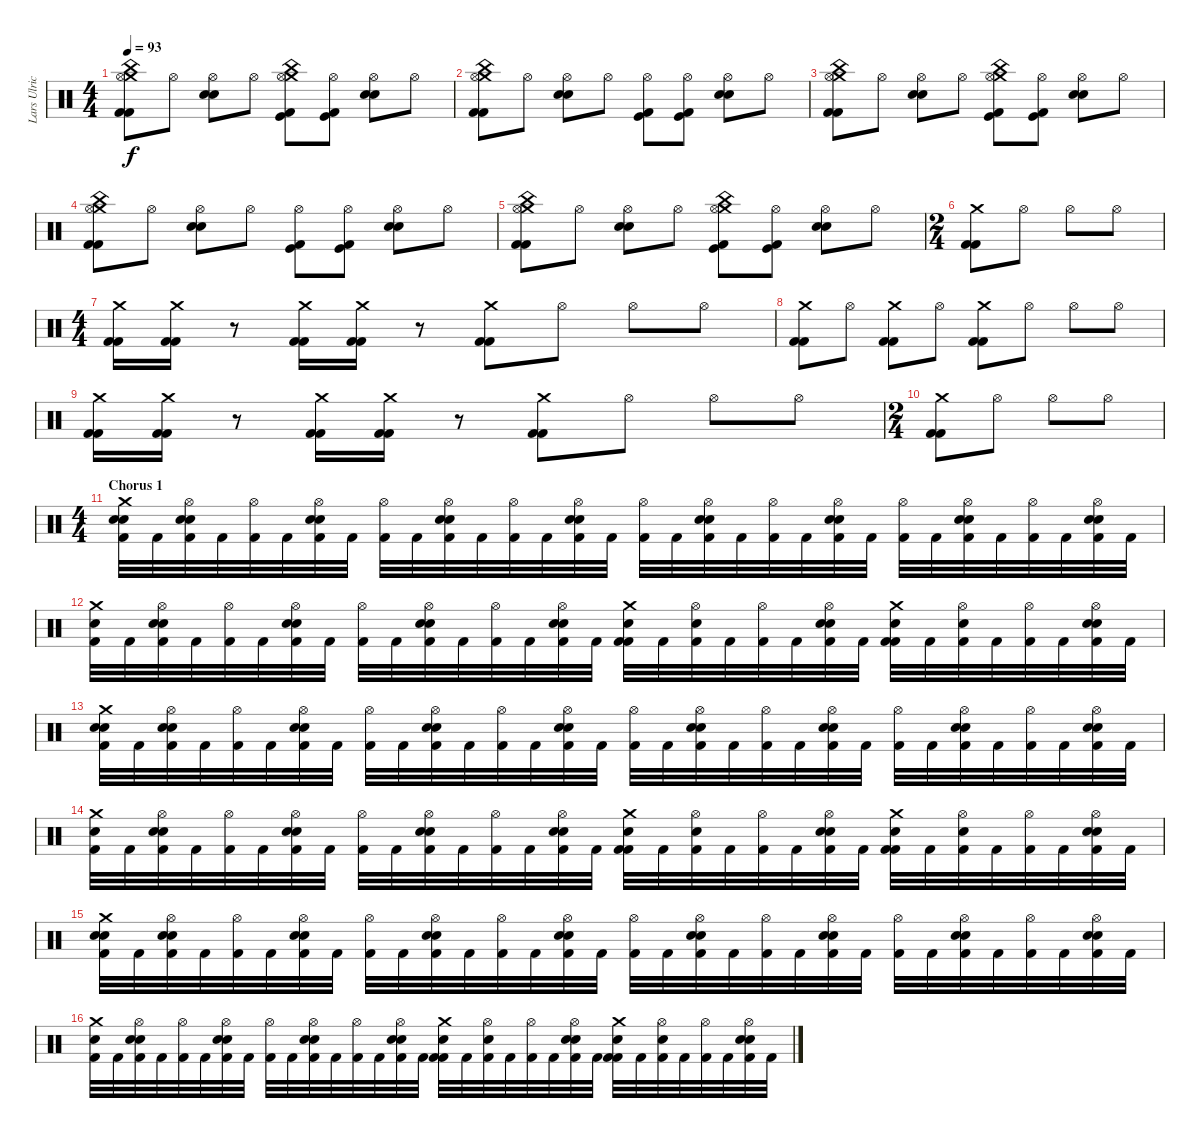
\track ("Lars Ulrich" "Lars Ulric") {instrument percussion}
\staff {score}
\articulation defaults
\ts (4 4)
\tempo 93
\clef neutral
\ks c
("Crash medium (hit)" "Hi-Hat (open)" "China (hit)" "Kick (hit) 2" "Kick (hit) 2").8{dy f} "Hi-Hat (open)".8 ("Hi-Hat (open)" "Electric Snare (hit)" "Snare (hit) 2").8 "Hi-Hat (open)".8 ("Crash medium (hit)" "Hi-Hat (open)" "China (hit)" "Kick (hit) 2" "Kick (hit)").8 ("Hi-Hat (open)" "Kick (hit) 2" "Kick (hit)").8 ("Hi-Hat (open)" "Electric Snare (hit)" "Snare (hit) 2").8 "Hi-Hat (open)".8 |
("Crash medium (hit)" "Hi-Hat (open)" "China (hit)" "Kick (hit) 2" "Kick (hit) 2").8 "Hi-Hat (open)".8 ("Hi-Hat (open)" "Electric Snare (hit)" "Snare (hit) 2").8 "Hi-Hat (open)".8 ("Hi-Hat (open)" "Kick (hit) 2" "Kick (hit)").8 ("Hi-Hat (open)" "Kick (hit) 2" "Kick (hit)").8 ("Hi-Hat (open)" "Electric Snare (hit)" "Snare (hit) 2").8 "Hi-Hat (open)".8 |
("Crash medium (hit)" "Hi-Hat (open)" "China (hit)" "Kick (hit) 2" "Kick (hit) 2").8 "Hi-Hat (open)".8 ("Hi-Hat (open)" "Electric Snare (hit)" "Snare (hit) 2").8 "Hi-Hat (open)".8 ("Crash medium (hit)" "Hi-Hat (open)" "China (hit)" "Kick (hit) 2" "Kick (hit)").8 ("Hi-Hat (open)" "Kick (hit) 2" "Kick (hit)").8 ("Hi-Hat (open)" "Electric Snare (hit)" "Snare (hit) 2").8 "Hi-Hat (open)".8 |
("Crash medium (hit)" "Hi-Hat (open)" "China (hit)" "Kick (hit) 2" "Kick (hit) 2").8 "Hi-Hat (open)".8 ("Hi-Hat (open)" "Electric Snare (hit)" "Snare (hit) 2").8 "Hi-Hat (open)".8 ("Hi-Hat (open)" "Kick (hit) 2" "Kick (hit)").8 ("Hi-Hat (open)" "Kick (hit) 2" "Kick (hit)").8 ("Hi-Hat (open)" "Electric Snare (hit)" "Snare (hit) 2").8 "Hi-Hat (open)".8 |
("Crash medium (hit)" "Hi-Hat (open)" "China (hit)" "Kick (hit) 2" "Kick (hit) 2").8 "Hi-Hat (open)".8 ("Hi-Hat (open)" "Electric Snare (hit)" "Snare (hit) 2").8 "Hi-Hat (open)".8 ("Crash medium (hit)" "Hi-Hat (open)" "China (hit)" "Kick (hit) 2" "Kick (hit)").8 ("Hi-Hat (open)" "Kick (hit) 2" "Kick (hit)").8 ("Hi-Hat (open)" "Electric Snare (hit)" "Snare (hit) 2").8 "Hi-Hat (open)".8 |
\ts (2 4)
("Crash medium (hit)" "Kick (hit) 2" "Kick (hit) 2").8 "Hi-Hat (open)".8 "Hi-Hat (open)".8 "Hi-Hat (open)".8 |
\ts (4 4)
("Crash medium (hit)" "Kick (hit) 2" "Kick (hit) 2").16 ("Crash medium (hit)" "Kick (hit) 2" "Kick (hit) 2").16 r.8 ("Crash medium (hit)" "Kick (hit) 2" "Kick (hit) 2").16 ("Crash medium (hit)" "Kick (hit) 2" "Kick (hit) 2").16 r.8 ("Crash medium (hit)" "Kick (hit) 2" "Kick (hit) 2").8 "Hi-Hat (open)".8 "Hi-Hat (open)".8 "Hi-Hat (open)".8 |
("Crash medium (hit)" "Kick (hit) 2" "Kick (hit) 2").8 "Hi-Hat (open)".8 ("Crash medium (hit)" "Kick (hit) 2" "Kick (hit) 2").8 "Hi-Hat (open)".8 ("Crash medium (hit)" "Kick (hit) 2" "Kick (hit) 2").8 "Hi-Hat (open)".8 "Hi-Hat (open)".8 "Hi-Hat (open)".8 |
("Crash medium (hit)" "Kick (hit) 2" "Kick (hit) 2").16 ("Crash medium (hit)" "Kick (hit) 2" "Kick (hit) 2").16 r.8 ("Crash medium (hit)" "Kick (hit) 2" "Kick (hit) 2").16 ("Crash medium (hit)" "Kick (hit) 2" "Kick (hit) 2").16 r.8 ("Crash medium (hit)" "Kick (hit) 2" "Kick (hit) 2").8 "Hi-Hat (open)".8 "Hi-Hat (open)".8 "Hi-Hat (open)".8 |
\ts (2 4)
("Crash medium (hit)" "Kick (hit) 2" "Kick (hit) 2").8 "Hi-Hat (open)".8 "Hi-Hat (open)".8 "Hi-Hat (open)".8 |
\ts (4 4)
\section ("" "Chorus 1")
("Crash medium (hit)" "Snare (hit) 2" "Snare (hit) 2" "Kick (hit) 2").32 "Kick (hit) 2".32 ("Hi-Hat (open)" "Electric Snare (hit)" "Snare (hit) 2" "Kick (hit) 2").32 "Kick (hit) 2".32 ("Hi-Hat (open)" "Kick (hit) 2").32 "Kick (hit) 2".32 ("Hi-Hat (open)" "Electric Snare (hit)" "Snare (hit) 2" "Kick (hit) 2").32 "Kick (hit) 2".32 ("Hi-Hat (open)" "Kick (hit) 2").32 "Kick (hit) 2".32 ("Hi-Hat (open)" "Electric Snare (hit)" "Snare (hit) 2" "Kick (hit) 2").32 "Kick (hit) 2".32 ("Hi-Hat (open)" "Kick (hit) 2").32 "Kick (hit) 2".32 ("Hi-Hat (open)" "Electric Snare (hit)" "Snare (hit) 2" "Kick (hit) 2").32 "Kick (hit) 2".32 ("Hi-Hat (open)" "Kick (hit) 2").32 "Kick (hit) 2".32 ("Hi-Hat (open)" "Electric Snare (hit)" "Snare (hit) 2" "Kick (hit) 2").32 "Kick (hit) 2".32 ("Hi-Hat (open)" "Kick (hit) 2").32 "Kick (hit) 2".32 ("Hi-Hat (open)" "Electric Snare (hit)" "Snare (hit) 2" "Kick (hit) 2").32 "Kick (hit) 2".32 ("Hi-Hat (open)" "Kick (hit) 2").32 "Kick (hit) 2".32 ("Hi-Hat (open)" "Electric Snare (hit)" "Snare (hit) 2" "Kick (hit) 2").32 "Kick (hit) 2".32 ("Hi-Hat (open)" "Kick (hit) 2").32 "Kick (hit) 2".32 ("Hi-Hat (open)" "Electric Snare (hit)" "Snare (hit) 2" "Kick (hit) 2").32 "Kick (hit) 2".32 |
("Crash medium (hit)" "Snare (hit) 2" "Kick (hit) 2").32 "Kick (hit) 2".32 ("Hi-Hat (open)" "Electric Snare (hit)" "Snare (hit) 2" "Kick (hit) 2").32 "Kick (hit) 2".32 ("Hi-Hat (open)" "Kick (hit) 2").32 "Kick (hit) 2".32 ("Hi-Hat (open)" "Electric Snare (hit)" "Snare (hit) 2" "Kick (hit) 2").32 "Kick (hit) 2".32 ("Hi-Hat (open)" "Kick (hit) 2").32 "Kick (hit) 2".32 ("Hi-Hat (open)" "Electric Snare (hit)" "Snare (hit) 2" "Kick (hit) 2").32 "Kick (hit) 2".32 ("Hi-Hat (open)" "Kick (hit) 2").32 "Kick (hit) 2".32 ("Hi-Hat (open)" "Electric Snare (hit)" "Snare (hit) 2" "Kick (hit) 2").32 "Kick (hit) 2".32 ("Crash medium (hit)" "Snare (hit) 2" "Kick (hit) 2" "Kick (hit) 2").32 "Kick (hit) 2".32 ("Hi-Hat (open)" "Electric Snare (hit)" "Kick (hit) 2").32 "Kick (hit) 2".32 ("Hi-Hat (open)" "Kick (hit) 2").32 "Kick (hit) 2".32 ("Hi-Hat (open)" "Electric Snare (hit)" "Snare (hit) 2" "Kick (hit) 2").32 "Kick (hit) 2".32 ("Crash medium (hit)" "Snare (hit) 2" "Kick (hit) 2" "Kick (hit) 2").32 "Kick (hit) 2".32 ("Hi-Hat (open)" "Electric Snare (hit)" "Kick (hit) 2").32 "Kick (hit) 2".32 ("Hi-Hat (open)" "Kick (hit) 2").32 "Kick (hit) 2".32 ("Hi-Hat (open)" "Electric Snare (hit)" "Snare (hit) 2" "Kick (hit) 2").32 "Kick (hit) 2".32 |
("Crash medium (hit)" "Snare (hit) 2" "Snare (hit) 2" "Kick (hit) 2").32 "Kick (hit) 2".32 ("Hi-Hat (open)" "Electric Snare (hit)" "Snare (hit) 2" "Kick (hit) 2").32 "Kick (hit) 2".32 ("Hi-Hat (open)" "Kick (hit) 2").32 "Kick (hit) 2".32 ("Hi-Hat (open)" "Electric Snare (hit)" "Snare (hit) 2" "Kick (hit) 2").32 "Kick (hit) 2".32 ("Hi-Hat (open)" "Kick (hit) 2").32 "Kick (hit) 2".32 ("Hi-Hat (open)" "Electric Snare (hit)" "Snare (hit) 2" "Kick (hit) 2").32 "Kick (hit) 2".32 ("Hi-Hat (open)" "Kick (hit) 2").32 "Kick (hit) 2".32 ("Hi-Hat (open)" "Electric Snare (hit)" "Snare (hit) 2" "Kick (hit) 2").32 "Kick (hit) 2".32 ("Hi-Hat (open)" "Kick (hit) 2").32 "Kick (hit) 2".32 ("Hi-Hat (open)" "Electric Snare (hit)" "Snare (hit) 2" "Kick (hit) 2").32 "Kick (hit) 2".32 ("Hi-Hat (open)" "Kick (hit) 2").32 "Kick (hit) 2".32 ("Hi-Hat (open)" "Electric Snare (hit)" "Snare (hit) 2" "Kick (hit) 2").32 "Kick (hit) 2".32 ("Hi-Hat (open)" "Kick (hit) 2").32 "Kick (hit) 2".32 ("Hi-Hat (open)" "Electric Snare (hit)" "Snare (hit) 2" "Kick (hit) 2").32 "Kick (hit) 2".32 ("Hi-Hat (open)" "Kick (hit) 2").32 "Kick (hit) 2".32 ("Hi-Hat (open)" "Electric Snare (hit)" "Snare (hit) 2" "Kick (hit) 2").32 "Kick (hit) 2".32 |
("Crash medium (hit)" "Snare (hit) 2" "Kick (hit) 2").32 "Kick (hit) 2".32 ("Hi-Hat (open)" "Electric Snare (hit)" "Snare (hit) 2" "Kick (hit) 2").32 "Kick (hit) 2".32 ("Hi-Hat (open)" "Kick (hit) 2").32 "Kick (hit) 2".32 ("Hi-Hat (open)" "Electric Snare (hit)" "Snare (hit) 2" "Kick (hit) 2").32 "Kick (hit) 2".32 ("Hi-Hat (open)" "Kick (hit) 2").32 "Kick (hit) 2".32 ("Hi-Hat (open)" "Electric Snare (hit)" "Snare (hit) 2" "Kick (hit) 2").32 "Kick (hit) 2".32 ("Hi-Hat (open)" "Kick (hit) 2").32 "Kick (hit) 2".32 ("Hi-Hat (open)" "Electric Snare (hit)" "Snare (hit) 2" "Kick (hit) 2").32 "Kick (hit) 2".32 ("Crash medium (hit)" "Snare (hit) 2" "Kick (hit) 2" "Kick (hit) 2").32 "Kick (hit) 2".32 ("Hi-Hat (open)" "Electric Snare (hit)" "Kick (hit) 2").32 "Kick (hit) 2".32 ("Hi-Hat (open)" "Kick (hit) 2").32 "Kick (hit) 2".32 ("Hi-Hat (open)" "Electric Snare (hit)" "Snare (hit) 2" "Kick (hit) 2").32 "Kick (hit) 2".32 ("Crash medium (hit)" "Snare (hit) 2" "Kick (hit) 2" "Kick (hit) 2").32 "Kick (hit) 2".32 ("Hi-Hat (open)" "Electric Snare (hit)" "Kick (hit) 2").32 "Kick (hit) 2".32 ("Hi-Hat (open)" "Kick (hit) 2").32 "Kick (hit) 2".32 ("Hi-Hat (open)" "Electric Snare (hit)" "Snare (hit) 2" "Kick (hit) 2").32 "Kick (hit) 2".32 |
("Crash medium (hit)" "Snare (hit) 2" "Snare (hit) 2" "Kick (hit) 2").32 "Kick (hit) 2".32 ("Hi-Hat (open)" "Electric Snare (hit)" "Snare (hit) 2" "Kick (hit) 2").32 "Kick (hit) 2".32 ("Hi-Hat (open)" "Kick (hit) 2").32 "Kick (hit) 2".32 ("Hi-Hat (open)" "Electric Snare (hit)" "Snare (hit) 2" "Kick (hit) 2").32 "Kick (hit) 2".32 ("Hi-Hat (open)" "Kick (hit) 2").32 "Kick (hit) 2".32 ("Hi-Hat (open)" "Electric Snare (hit)" "Snare (hit) 2" "Kick (hit) 2").32 "Kick (hit) 2".32 ("Hi-Hat (open)" "Kick (hit) 2").32 "Kick (hit) 2".32 ("Hi-Hat (open)" "Electric Snare (hit)" "Snare (hit) 2" "Kick (hit) 2").32 "Kick (hit) 2".32 ("Hi-Hat (open)" "Kick (hit) 2").32 "Kick (hit) 2".32 ("Hi-Hat (open)" "Electric Snare (hit)" "Snare (hit) 2" "Kick (hit) 2").32 "Kick (hit) 2".32 ("Hi-Hat (open)" "Kick (hit) 2").32 "Kick (hit) 2".32 ("Hi-Hat (open)" "Electric Snare (hit)" "Snare (hit) 2" "Kick (hit) 2").32 "Kick (hit) 2".32 ("Hi-Hat (open)" "Kick (hit) 2").32 "Kick (hit) 2".32 ("Hi-Hat (open)" "Electric Snare (hit)" "Snare (hit) 2" "Kick (hit) 2").32 "Kick (hit) 2".32 ("Hi-Hat (open)" "Kick (hit) 2").32 "Kick (hit) 2".32 ("Hi-Hat (open)" "Electric Snare (hit)" "Snare (hit) 2" "Kick (hit) 2").32 "Kick (hit) 2".32 |
("Crash medium (hit)" "Snare (hit) 2" "Kick (hit) 2").32 "Kick (hit) 2".32 ("Hi-Hat (open)" "Electric Snare (hit)" "Snare (hit) 2" "Kick (hit) 2").32 "Kick (hit) 2".32 ("Hi-Hat (open)" "Kick (hit) 2").32 "Kick (hit) 2".32 ("Hi-Hat (open)" "Electric Snare (hit)" "Snare (hit) 2" "Kick (hit) 2").32 "Kick (hit) 2".32 ("Hi-Hat (open)" "Kick (hit) 2").32 "Kick (hit) 2".32 ("Hi-Hat (open)" "Electric Snare (hit)" "Snare (hit) 2" "Kick (hit) 2").32 "Kick (hit) 2".32 ("Hi-Hat (open)" "Kick (hit) 2").32 "Kick (hit) 2".32 ("Hi-Hat (open)" "Electric Snare (hit)" "Snare (hit) 2" "Kick (hit) 2").32 "Kick (hit) 2".32 ("Crash medium (hit)" "Snare (hit) 2" "Kick (hit) 2" "Kick (hit) 2").32 "Kick (hit) 2".32 ("Hi-Hat (open)" "Electric Snare (hit)" "Kick (hit) 2").32 "Kick (hit) 2".32 ("Hi-Hat (open)" "Kick (hit) 2").32 "Kick (hit) 2".32 ("Hi-Hat (open)" "Electric Snare (hit)" "Snare (hit) 2" "Kick (hit) 2").32 "Kick (hit) 2".32 ("Crash medium (hit)" "Snare (hit) 2" "Kick (hit) 2" "Kick (hit) 2").32 "Kick (hit) 2".32 ("Hi-Hat (open)" "Electric Snare (hit)" "Kick (hit) 2").32 "Kick (hit) 2".32 ("Hi-Hat (open)" "Kick (hit) 2").32 "Kick (hit) 2".32 ("Hi-Hat (open)" "Electric Snare (hit)" "Snare (hit) 2" "Kick (hit) 2").32 "Kick (hit) 2".32
